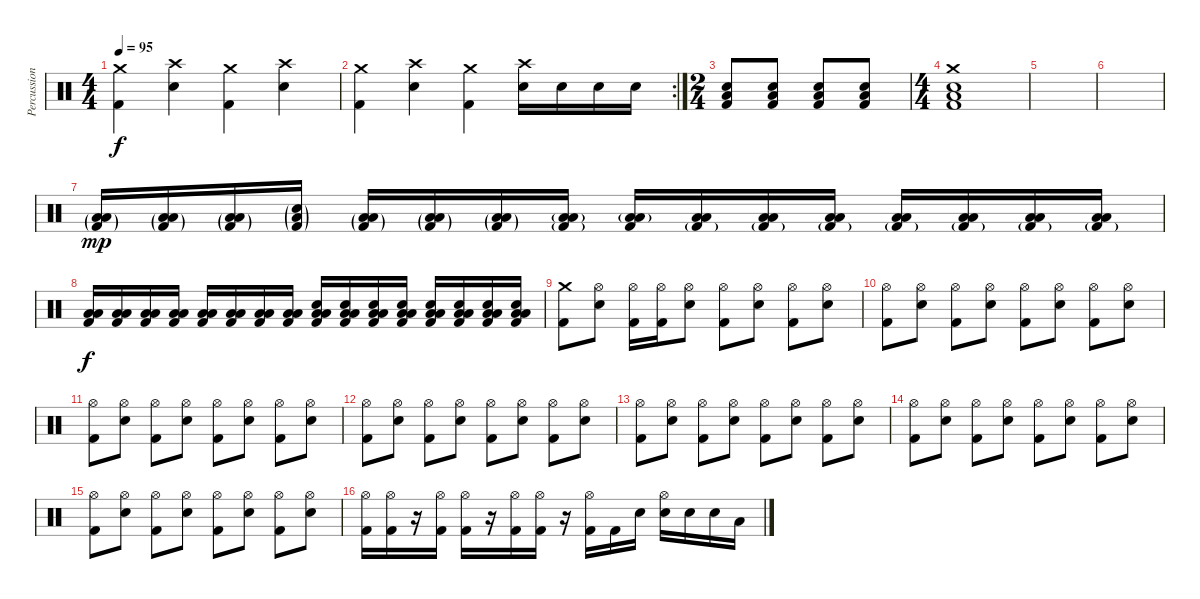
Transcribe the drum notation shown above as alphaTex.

\track ("Percussion" "Percussion") {instrument percussion}
\staff {score}
\articulation defaults
\ts (4 4)
\tempo 95
\clef neutral
\ks c
("Crash medium (hit)" "Kick (hit) 2").4{dy f} ("Crash high (hit)" "Electric Snare (hit)").4 ("Crash medium (hit)" "Kick (hit) 2").4 ("Crash high (hit)" "Electric Snare (hit)").4 |
\rc 2
("Crash medium (hit)" "Kick (hit) 2").4 ("Crash high (hit)" "Electric Snare (hit)").4 ("Crash medium (hit)" "Kick (hit) 2").4 ("Crash high (hit)" "Electric Snare (hit)").16 "Electric Snare (hit)".16 "Electric Snare (hit)".16 "Electric Snare (hit)".16 |
\ts (2 4)
("Low Floor Tom (hit)" "Electric Snare (hit)" "Kick (hit) 2").8 ("Low Floor Tom (hit)" "Electric Snare (hit)" "Kick (hit) 2").8 ("Low Floor Tom (hit)" "Electric Snare (hit)" "Kick (hit) 2").8 ("Low Floor Tom (hit)" "Electric Snare (hit)" "Kick (hit) 2").8 |
\ts (4 4)
("Crash medium (hit)" "Low Floor Tom (hit)" "Electric Snare (hit)" "Kick (hit) 2").1 |
|
|
("Low Tom (hit)"{g} "Low Floor Tom (hit)"{g} "Kick (hit) 2"{g}).16{dy mp} ("Low Tom (hit)"{g} "Low Floor Tom (hit)"{g} "Kick (hit) 2"{g}).16 ("Low Tom (hit)"{g} "Low Floor Tom (hit)"{g} "Kick (hit) 2"{g}).16 ("Low Tom (hit)"{g} "Snare (hit)"{g} "Kick (hit) 2"{g}).16 ("Low Tom (hit)"{g} "Low Floor Tom (hit)"{g} "Kick (hit) 2"{g}).16 ("Low Tom (hit)"{g} "Low Floor Tom (hit)"{g} "Kick (hit) 2"{g}).16 ("Low Tom (hit)"{g} "Low Floor Tom (hit)"{g} "Kick (hit) 2"{g}).16 ("Low Tom (hit)"{g} "Low Floor Tom (hit)" "Kick (hit) 2"{g}).16 ("Low Tom (hit)"{g} "Low Floor Tom (hit)"{g} "Kick (hit) 2").16 ("Low Tom (hit)" "Low Floor Tom (hit)" "Kick (hit) 2"{g}).16 ("Low Tom (hit)" "Low Floor Tom (hit)" "Kick (hit) 2"{g}).16 ("Low Tom (hit)" "Low Floor Tom (hit)" "Kick (hit) 2"{g}).16 ("Low Tom (hit)" "Low Floor Tom (hit)" "Kick (hit) 2"{g}).16 ("Low Tom (hit)" "Low Floor Tom (hit)" "Kick (hit) 2"{g}).16 ("Low Tom (hit)" "Low Floor Tom (hit)" "Kick (hit) 2"{g}).16 ("Low Tom (hit)" "Low Floor Tom (hit)" "Kick (hit) 2"{g}).16 |
("Low Tom (hit)" "Low Floor Tom (hit)" "Kick (hit) 2").16{dy f} ("Low Tom (hit)" "Low Floor Tom (hit)" "Kick (hit) 2").16 ("Low Tom (hit)" "Low Floor Tom (hit)" "Kick (hit) 2").16 ("Low Tom (hit)" "Low Floor Tom (hit)" "Kick (hit) 2").16 ("Low Tom (hit)" "Low Floor Tom (hit)" "Kick (hit) 2").16 ("Low Tom (hit)" "Low Floor Tom (hit)" "Kick (hit) 2").16 ("Low Tom (hit)" "Low Floor Tom (hit)" "Kick (hit) 2").16 ("Low Tom (hit)" "Low Floor Tom (hit)" "Kick (hit) 2").16 ("Electric Snare (hit)" "Low Tom (hit)" "Low Floor Tom (hit)" "Kick (hit) 2").16 ("Electric Snare (hit)" "Low Tom (hit)" "Low Floor Tom (hit)" "Kick (hit) 2").16 ("Electric Snare (hit)" "Low Tom (hit)" "Low Floor Tom (hit)" "Kick (hit) 2").16 ("Electric Snare (hit)" "Low Tom (hit)" "Low Floor Tom (hit)" "Kick (hit) 2").16 ("Electric Snare (hit)" "Low Tom (hit)" "Low Floor Tom (hit)" "Kick (hit) 2").16 ("Electric Snare (hit)" "Low Tom (hit)" "Low Floor Tom (hit)" "Kick (hit) 2").16 ("Electric Snare (hit)" "Low Tom (hit)" "Low Floor Tom (hit)" "Kick (hit) 2").16 ("Electric Snare (hit)" "Low Tom (hit)" "Low Floor Tom (hit)" "Kick (hit) 2").16 |
("Crash medium (hit)" "Kick (hit) 2").8 ("Hi-Hat (open)" "Electric Snare (hit)").8 ("Hi-Hat (open)" "Kick (hit) 2").16 ("Hi-Hat (open)" "Kick (hit) 2").16 ("Hi-Hat (open)" "Electric Snare (hit)").8 ("Hi-Hat (open)" "Kick (hit) 2").8 ("Hi-Hat (open)" "Electric Snare (hit)").8 ("Hi-Hat (open)" "Kick (hit) 2").8 ("Hi-Hat (open)" "Electric Snare (hit)").8 |
("Hi-Hat (open)" "Kick (hit) 2").8 ("Hi-Hat (open)" "Electric Snare (hit)").8 ("Hi-Hat (open)" "Kick (hit) 2").8 ("Hi-Hat (open)" "Electric Snare (hit)").8 ("Hi-Hat (open)" "Kick (hit) 2").8 ("Hi-Hat (open)" "Electric Snare (hit)").8 ("Hi-Hat (open)" "Kick (hit) 2").8 ("Hi-Hat (open)" "Electric Snare (hit)").8 |
("Hi-Hat (open)" "Kick (hit) 2").8 ("Hi-Hat (open)" "Electric Snare (hit)").8 ("Hi-Hat (open)" "Kick (hit) 2").8 ("Hi-Hat (open)" "Electric Snare (hit)").8 ("Hi-Hat (open)" "Kick (hit) 2").8 ("Hi-Hat (open)" "Electric Snare (hit)").8 ("Hi-Hat (open)" "Kick (hit) 2").8 ("Hi-Hat (open)" "Electric Snare (hit)").8 |
("Hi-Hat (open)" "Kick (hit) 2").8 ("Hi-Hat (open)" "Electric Snare (hit)").8 ("Hi-Hat (open)" "Kick (hit) 2").8 ("Hi-Hat (open)" "Electric Snare (hit)").8 ("Hi-Hat (open)" "Kick (hit) 2").8 ("Hi-Hat (open)" "Electric Snare (hit)").8 ("Hi-Hat (open)" "Kick (hit) 2").8 ("Hi-Hat (open)" "Electric Snare (hit)").8 |
("Hi-Hat (open)" "Kick (hit) 2").8 ("Hi-Hat (open)" "Electric Snare (hit)").8 ("Hi-Hat (open)" "Kick (hit) 2").8 ("Hi-Hat (open)" "Electric Snare (hit)").8 ("Hi-Hat (open)" "Kick (hit) 2").8 ("Hi-Hat (open)" "Electric Snare (hit)").8 ("Hi-Hat (open)" "Kick (hit) 2").8 ("Hi-Hat (open)" "Electric Snare (hit)").8 |
("Hi-Hat (open)" "Kick (hit) 2").8 ("Hi-Hat (open)" "Electric Snare (hit)").8 ("Hi-Hat (open)" "Kick (hit) 2").8 ("Hi-Hat (open)" "Electric Snare (hit)").8 ("Hi-Hat (open)" "Kick (hit) 2").8 ("Hi-Hat (open)" "Electric Snare (hit)").8 ("Hi-Hat (open)" "Kick (hit) 2").8 ("Hi-Hat (open)" "Electric Snare (hit)").8 |
("Hi-Hat (open)" "Kick (hit) 2").8 ("Hi-Hat (open)" "Electric Snare (hit)").8 ("Hi-Hat (open)" "Kick (hit) 2").8 ("Hi-Hat (open)" "Electric Snare (hit)").8 ("Hi-Hat (open)" "Kick (hit) 2").8 ("Hi-Hat (open)" "Electric Snare (hit)").8 ("Hi-Hat (open)" "Kick (hit) 2").8 ("Hi-Hat (open)" "Electric Snare (hit)").8 |
("Hi-Hat (open)" "Kick (hit) 2").16 ("Hi-Hat (open)" "Kick (hit) 2").16 r.16 ("Hi-Hat (open)" "Kick (hit) 2").16 ("Hi-Hat (open)" "Kick (hit) 2").16 r.16 ("Hi-Hat (open)" "Kick (hit) 2").16 ("Hi-Hat (open)" "Kick (hit) 2").16 r.16 ("Hi-Hat (open)" "Kick (hit) 2").16 "Kick (hit) 2".16 "Electric Snare (hit)".16 ("Hi-Hat (open)" "Electric Snare (hit)").16 "Electric Snare (hit)".16 "Electric Snare (hit)".16 "Low Tom (hit)".16
